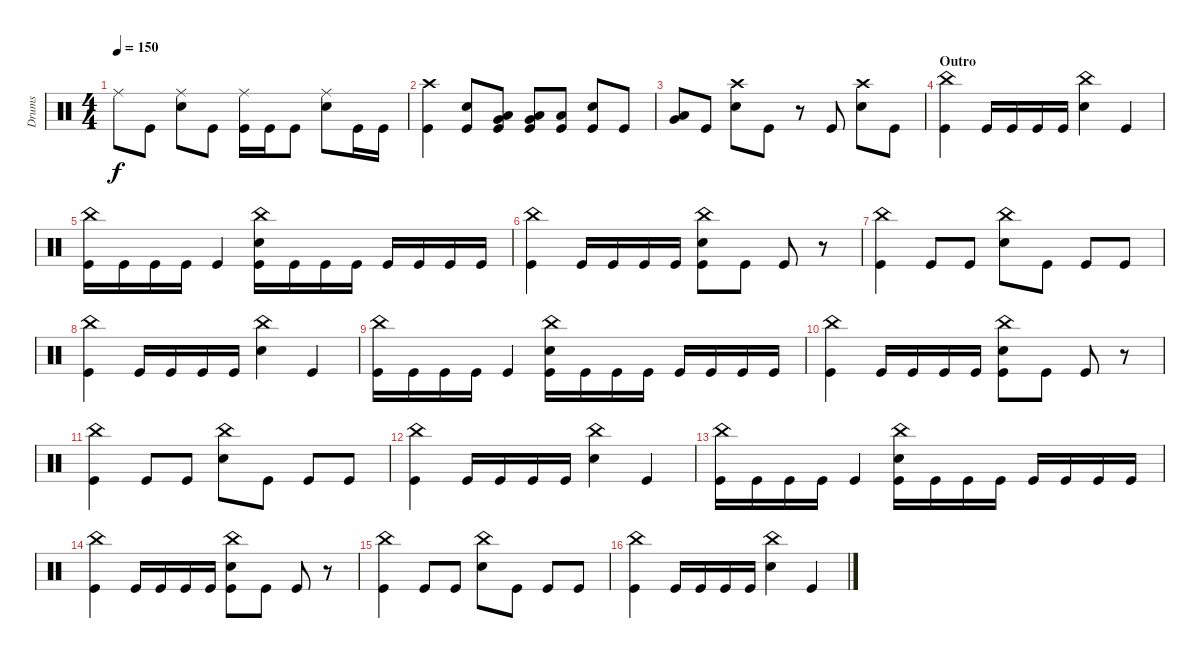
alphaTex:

\track ("Drums" "Drums") {instrument percussion}
\staff {score}
\articulation defaults
\ts (4 4)
\tempo 150
\clef neutral
\ks c "Ride (middle)".8{dy f} "Kick (hit)".8
("Snare (hit) 2" "Ride (middle)").8 "Kick (hit)".8 ("Ride (middle)" "Kick (hit)").16 "Kick (hit)".16 "Kick (hit)".8 ("Ride (middle)" "Snare (hit) 2").8 "Kick (hit)".16 "Kick (hit)".16 |
("Crash high (hit)" "Kick (hit)").4 ("Snare (hit) 2" "Kick (hit)").8 ("Very Low Tom (hit)" "Low Tom (hit)" "Kick (hit)").8 ("Low Floor Tom (hit)" "Very Low Tom (hit)" "Kick (hit)").8 ("Low Floor Tom (hit)" "Kick (hit)").8 ("Snare (hit) 2" "Kick (hit)").8 "Kick (hit)".8 |
("Low Tom (hit)" "Very Low Tom (hit)").8 "Kick (hit)".8 ("Snare (hit) 2" "Crash high (hit)").8 "Kick (hit)".8 r.8 "Kick (hit)".8 ("Snare (hit) 2" "Crash high (hit)").8 "Kick (hit)".8 |
\section ("" "Outro")
("China (hit)" "Kick (hit)").4 "Kick (hit)".16 "Kick (hit)".16 "Kick (hit)".16 "Kick (hit)".16 ("China (hit)" "Snare (hit) 2").4 "Kick (hit)".4 |
("China (hit)" "Kick (hit)").16 "Kick (hit)".16 "Kick (hit)".16 "Kick (hit)".16 "Kick (hit)".4 ("Snare (hit) 2" "China (hit)" "Kick (hit)").16 "Kick (hit)".16 "Kick (hit)".16 "Kick (hit)".16 "Kick (hit)".16 "Kick (hit)".16 "Kick (hit)".16 "Kick (hit)".16 |
("China (hit)" "Kick (hit)").4 "Kick (hit)".16 "Kick (hit)".16 "Kick (hit)".16 "Kick (hit)".16 ("China (hit)" "Snare (hit) 2" "Kick (hit)").8 "Kick (hit)".8 "Kick (hit)".8 r.8 |
("China (hit)" "Kick (hit)").4 "Kick (hit)".8 "Kick (hit)".8 ("Snare (hit) 2" "China (hit)").8 "Kick (hit)".8 "Kick (hit)".8 "Kick (hit)".8 |
("China (hit)" "Kick (hit)").4 "Kick (hit)".16 "Kick (hit)".16 "Kick (hit)".16 "Kick (hit)".16 ("China (hit)" "Snare (hit) 2").4 "Kick (hit)".4 |
("China (hit)" "Kick (hit)").16 "Kick (hit)".16 "Kick (hit)".16 "Kick (hit)".16 "Kick (hit)".4 ("Snare (hit) 2" "China (hit)" "Kick (hit)").16 "Kick (hit)".16 "Kick (hit)".16 "Kick (hit)".16 "Kick (hit)".16 "Kick (hit)".16 "Kick (hit)".16 "Kick (hit)".16 |
("China (hit)" "Kick (hit)").4 "Kick (hit)".16 "Kick (hit)".16 "Kick (hit)".16 "Kick (hit)".16 ("China (hit)" "Snare (hit) 2" "Kick (hit)").8 "Kick (hit)".8 "Kick (hit)".8 r.8 |
("China (hit)" "Kick (hit)").4 "Kick (hit)".8 "Kick (hit)".8 ("Snare (hit) 2" "China (hit)").8 "Kick (hit)".8 "Kick (hit)".8 "Kick (hit)".8 |
("China (hit)" "Kick (hit)").4 "Kick (hit)".16 "Kick (hit)".16 "Kick (hit)".16 "Kick (hit)".16 ("China (hit)" "Snare (hit) 2").4 "Kick (hit)".4 |
("China (hit)" "Kick (hit)").16 "Kick (hit)".16 "Kick (hit)".16 "Kick (hit)".16 "Kick (hit)".4 ("Snare (hit) 2" "China (hit)" "Kick (hit)").16 "Kick (hit)".16 "Kick (hit)".16 "Kick (hit)".16 "Kick (hit)".16 "Kick (hit)".16 "Kick (hit)".16 "Kick (hit)".16 |
("China (hit)" "Kick (hit)").4 "Kick (hit)".16 "Kick (hit)".16 "Kick (hit)".16 "Kick (hit)".16 ("China (hit)" "Snare (hit) 2" "Kick (hit)").8 "Kick (hit)".8 "Kick (hit)".8 r.8 |
("China (hit)" "Kick (hit)").4 "Kick (hit)".8 "Kick (hit)".8 ("Snare (hit) 2" "China (hit)").8 "Kick (hit)".8 "Kick (hit)".8 "Kick (hit)".8 |
("China (hit)" "Kick (hit)").4 "Kick (hit)".16 "Kick (hit)".16 "Kick (hit)".16 "Kick (hit)".16 ("China (hit)" "Snare (hit) 2").4 "Kick (hit)".4
